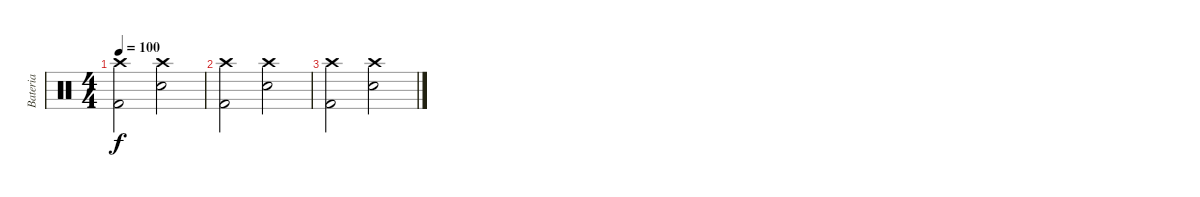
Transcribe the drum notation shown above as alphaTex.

\track ("Bateria" "Bateria") {instrument percussion}
\staff {score}
\articulation defaults
\ts (4 4)
\tempo 100
\clef neutral
\ks c
("Crash high (hit)" "Kick (hit) 2").2{dy f} ("Crash high (hit)" "Snare (hit) 2").2 |
("Crash high (hit)" "Kick (hit) 2").2 ("Crash high (hit)" "Snare (hit) 2").2 |
("Crash high (hit)" "Kick (hit) 2").2 ("Crash high (hit)" "Snare (hit) 2").2
